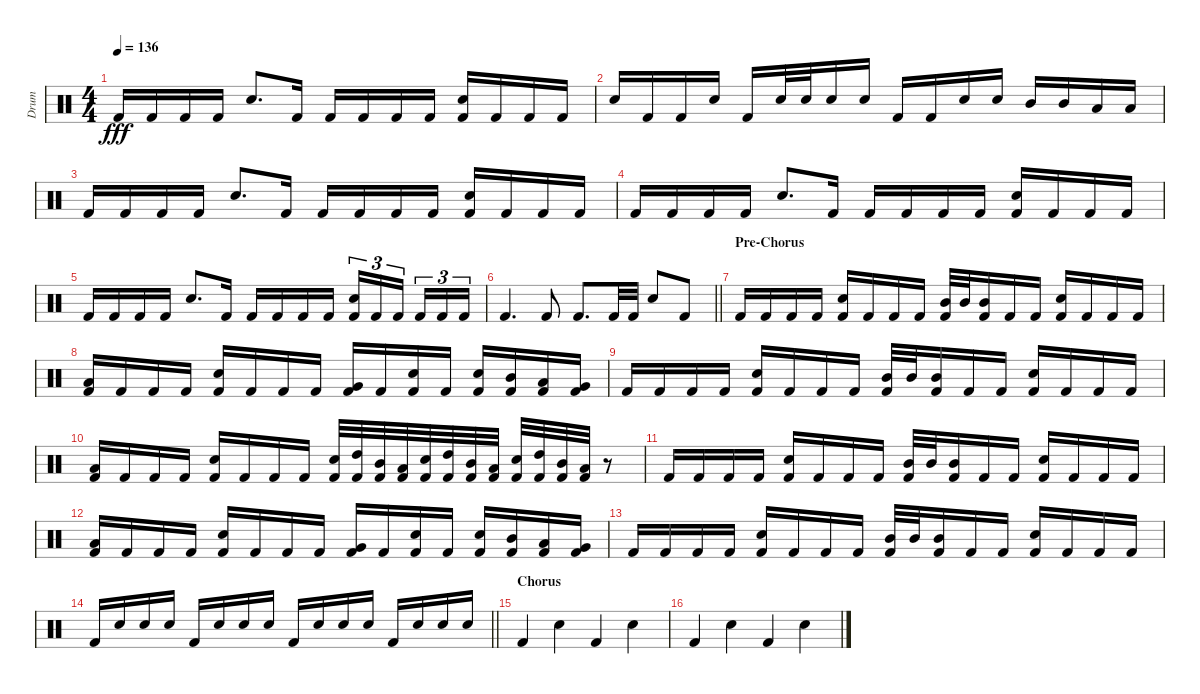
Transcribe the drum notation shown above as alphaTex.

\track ("Drum" "Drum") {instrument percussion}
\staff {score}
\articulation defaults
\ts (4 4)
\tempo 136
\clef neutral
\ks c "Kick (hit) 2".16{dy fff} "Kick (hit) 2".16 "Kick (hit) 2".16 "Kick (hit) 2".16 "Electric Snare (hit)".8{d} "Kick (hit) 2".16 "Kick (hit) 2".16 "Kick (hit) 2".16 "Kick (hit) 2".16 "Kick (hit) 2".16
("Electric Snare (hit)" "Kick (hit) 2").16 "Kick (hit) 2".16 "Kick (hit) 2".16 "Kick (hit) 2".16 |
"Electric Snare (hit)".16 "Kick (hit) 2".16 "Kick (hit) 2".16 "Electric Snare (hit)".16 "Kick (hit) 2".16 "Electric Snare (hit)".32 "Electric Snare (hit)".32 "Electric Snare (hit)".16 "Electric Snare (hit)".16 "Kick (hit) 2".16 "Kick (hit) 2".16 "Electric Snare (hit)".16 "Electric Snare (hit)".16 "Mid Tom (hit)".16 "Mid Tom (hit)".16 "Low Tom (hit)".16 "Low Tom (hit)".16 |
"Kick (hit) 2".16 "Kick (hit) 2".16 "Kick (hit) 2".16 "Kick (hit) 2".16 "Electric Snare (hit)".8{d} "Kick (hit) 2".16 "Kick (hit) 2".16 "Kick (hit) 2".16 "Kick (hit) 2".16 "Kick (hit) 2".16 ("Electric Snare (hit)" "Kick (hit) 2").16 "Kick (hit) 2".16 "Kick (hit) 2".16 "Kick (hit) 2".16 |
"Kick (hit) 2".16 "Kick (hit) 2".16 "Kick (hit) 2".16 "Kick (hit) 2".16 "Electric Snare (hit)".8{d} "Kick (hit) 2".16 "Kick (hit) 2".16 "Kick (hit) 2".16 "Kick (hit) 2".16 "Kick (hit) 2".16 ("Electric Snare (hit)" "Kick (hit) 2").16 "Kick (hit) 2".16 "Kick (hit) 2".16 "Kick (hit) 2".16 |
"Kick (hit) 2".16 "Kick (hit) 2".16 "Kick (hit) 2".16 "Kick (hit) 2".16 "Electric Snare (hit)".8{d} "Kick (hit) 2".16 "Kick (hit) 2".16 "Kick (hit) 2".16 "Kick (hit) 2".16 "Kick (hit) 2".16 ("Electric Snare (hit)" "Kick (hit) 2").16{tu (3 2)} "Kick (hit) 2".16{tu (3 2)} "Kick (hit) 2".16{tu (3 2) beam splitsecondary} "Kick (hit) 2".16{tu (3 2)} "Kick (hit) 2".16{tu (3 2)} "Kick (hit) 2".16{tu (3 2)} |
\barLineRight lightlight "Kick (hit) 2".4{d} "Kick (hit) 2".8 "Kick (hit) 2".8{d} "Kick (hit) 2".32 "Kick (hit) 2".32 "Electric Snare (hit)".8 "Kick (hit) 2".8
|
\section ("" "Pre-Chorus")
"Kick (hit) 2".16 "Kick (hit) 2".16 "Kick (hit) 2".16 "Kick (hit) 2".16 ("Electric Snare (hit)" "Kick (hit) 2").16 "Kick (hit) 2".16 "Kick (hit) 2".16 "Kick (hit) 2".16 ("Mid Tom (hit)" "Kick (hit) 2").32 "Mid Tom (hit)".32 ("Mid Tom (hit)" "Kick (hit) 2").16 "Kick (hit) 2".16 "Kick (hit) 2".16 ("Electric Snare (hit)" "Kick (hit) 2").16 "Kick (hit) 2".16 "Kick (hit) 2".16 "Kick (hit) 2".16 |
("Low Tom (hit)" "Kick (hit) 2").16 "Kick (hit) 2".16 "Kick (hit) 2".16 "Kick (hit) 2".16 ("Electric Snare (hit)" "Kick (hit) 2").16 "Kick (hit) 2".16 "Kick (hit) 2".16 "Kick (hit) 2".16 ("Very Low Tom (hit)" "Kick (hit) 2").16 "Kick (hit) 2".16 ("Electric Snare (hit)" "Kick (hit) 2").16 "Kick (hit) 2".16 ("Electric Snare (hit)" "Kick (hit) 2").16 ("Mid Tom (hit)" "Kick (hit) 2").16 ("Low Tom (hit)" "Kick (hit) 2").16 ("Very Low Tom (hit)" "Kick (hit) 2").16 |
"Kick (hit) 2".16 "Kick (hit) 2".16 "Kick (hit) 2".16 "Kick (hit) 2".16 ("Electric Snare (hit)" "Kick (hit) 2").16 "Kick (hit) 2".16 "Kick (hit) 2".16 "Kick (hit) 2".16 ("Mid Tom (hit)" "Kick (hit) 2").32 "Mid Tom (hit)".32 ("Mid Tom (hit)" "Kick (hit) 2").16 "Kick (hit) 2".16 "Kick (hit) 2".16 ("Electric Snare (hit)" "Kick (hit) 2").16 "Kick (hit) 2".16 "Kick (hit) 2".16 "Kick (hit) 2".16 |
("Low Tom (hit)" "Kick (hit) 2").16 "Kick (hit) 2".16 "Kick (hit) 2".16 "Kick (hit) 2".16 ("Electric Snare (hit)" "Kick (hit) 2").16 "Kick (hit) 2".16 "Kick (hit) 2".16 "Kick (hit) 2".16 ("Electric Snare (hit)" "Kick (hit) 2").32 ("High Tom (hit)" "Kick (hit) 2").32 ("Mid Tom (hit)" "Kick (hit) 2").32 ("Low Tom (hit)" "Kick (hit) 2").32 ("Electric Snare (hit)" "Kick (hit) 2").32 ("High Tom (hit)" "Kick (hit) 2").32 ("Mid Tom (hit)" "Kick (hit) 2").32 ("Low Tom (hit)" "Kick (hit) 2").32 ("Electric Snare (hit)" "Kick (hit) 2").32 ("High Tom (hit)" "Kick (hit) 2").32 ("Mid Tom (hit)" "Kick (hit) 2").32 ("Low Tom (hit)" "Kick (hit) 2").32 r.8 |
"Kick (hit) 2".16 "Kick (hit) 2".16 "Kick (hit) 2".16 "Kick (hit) 2".16 ("Electric Snare (hit)" "Kick (hit) 2").16 "Kick (hit) 2".16 "Kick (hit) 2".16 "Kick (hit) 2".16 ("Mid Tom (hit)" "Kick (hit) 2").32 "Mid Tom (hit)".32 ("Mid Tom (hit)" "Kick (hit) 2").16 "Kick (hit) 2".16 "Kick (hit) 2".16 ("Electric Snare (hit)" "Kick (hit) 2").16 "Kick (hit) 2".16 "Kick (hit) 2".16 "Kick (hit) 2".16 |
("Low Tom (hit)" "Kick (hit) 2").16 "Kick (hit) 2".16 "Kick (hit) 2".16 "Kick (hit) 2".16 ("Electric Snare (hit)" "Kick (hit) 2").16 "Kick (hit) 2".16 "Kick (hit) 2".16 "Kick (hit) 2".16 ("Very Low Tom (hit)" "Kick (hit) 2").16 "Kick (hit) 2".16 ("Electric Snare (hit)" "Kick (hit) 2").16 "Kick (hit) 2".16 ("Electric Snare (hit)" "Kick (hit) 2").16 ("Mid Tom (hit)" "Kick (hit) 2").16 ("Low Tom (hit)" "Kick (hit) 2").16 ("Very Low Tom (hit)" "Kick (hit) 2").16 |
"Kick (hit) 2".16 "Kick (hit) 2".16 "Kick (hit) 2".16 "Kick (hit) 2".16 ("Electric Snare (hit)" "Kick (hit) 2").16 "Kick (hit) 2".16 "Kick (hit) 2".16 "Kick (hit) 2".16 ("Mid Tom (hit)" "Kick (hit) 2").32 "Mid Tom (hit)".32 ("Mid Tom (hit)" "Kick (hit) 2").16 "Kick (hit) 2".16 "Kick (hit) 2".16 ("Electric Snare (hit)" "Kick (hit) 2").16 "Kick (hit) 2".16 "Kick (hit) 2".16 "Kick (hit) 2".16 |
\barLineRight lightlight "Kick (hit) 2".16 "Electric Snare (hit)".16 "Electric Snare (hit)".16 "Electric Snare (hit)".16 "Kick (hit) 2".16 "Electric Snare (hit)".16 "Electric Snare (hit)".16 "Electric Snare (hit)".16 "Kick (hit) 2".16 "Electric Snare (hit)".16 "Electric Snare (hit)".16 "Electric Snare (hit)".16 "Kick (hit) 2".16 "Electric Snare (hit)".16 "Electric Snare (hit)".16 "Electric Snare (hit)".16
|
\section ("" "Chorus")
"Kick (hit) 2".4 "Electric Snare (hit)".4 "Kick (hit) 2".4 "Electric Snare (hit)".4 |
"Kick (hit) 2".4 "Electric Snare (hit)".4 "Kick (hit) 2".4 "Electric Snare (hit)".4
